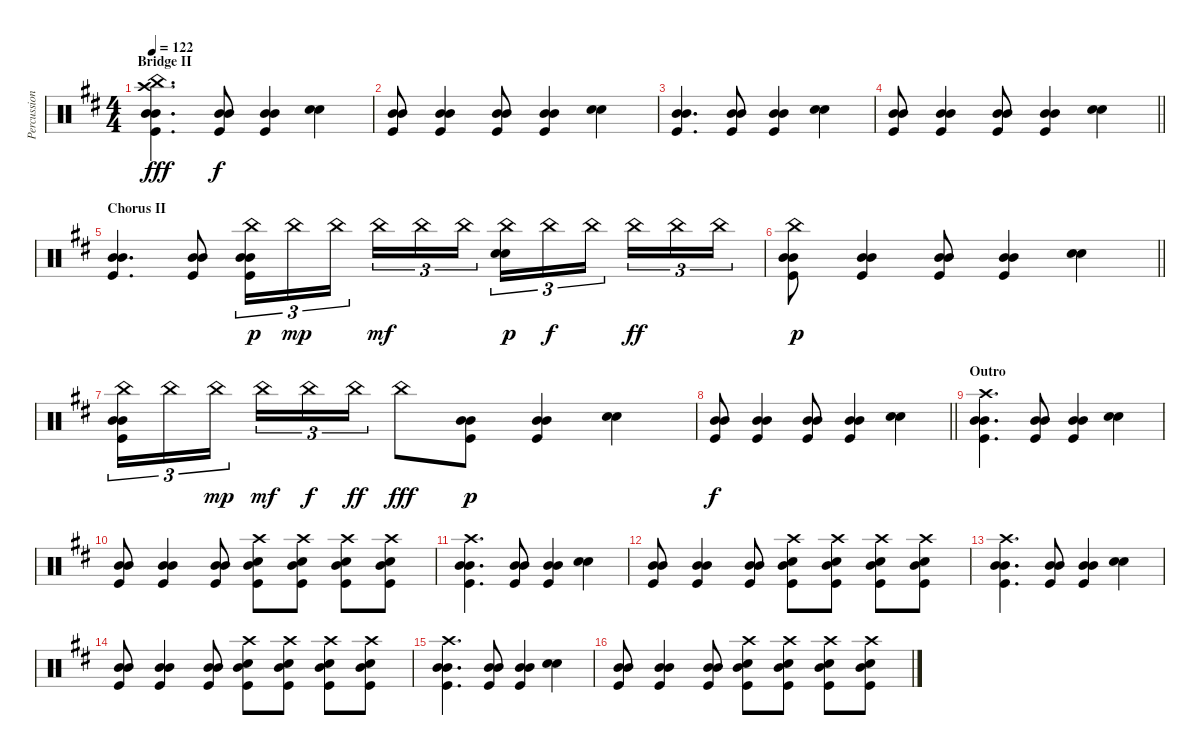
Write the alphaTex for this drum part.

\track ("Percussion" "Percussion") {instrument percussion}
\staff {score}
\articulation defaults
\ts (4 4)
\section ("" "Bridge II")
\tempo 122
\clef neutral
\ks bminor
("Crash high (hit)" "China (hit)" "Mid Tom (hit)" "Mid Tom (hit)" "Kick (hit)").4{d dy fff volume 8} ("Mid Tom (hit)" "Mid Tom (hit)" "Kick (hit)").8{dy f} ("Mid Tom (hit)" "Mid Tom (hit)" "Kick (hit)").4 ("Snare (hit) 2" "Snare (hit) 2").4 |
("Mid Tom (hit)" "Mid Tom (hit)" "Kick (hit)").8 ("Mid Tom (hit)" "Mid Tom (hit)" "Kick (hit)").4 ("Mid Tom (hit)" "Mid Tom (hit)" "Kick (hit)").8 ("Mid Tom (hit)" "Mid Tom (hit)" "Kick (hit)").4 ("Snare (hit) 2" "Snare (hit) 2").4 |
("Mid Tom (hit)" "Mid Tom (hit)" "Kick (hit)").4{d} ("Mid Tom (hit)" "Mid Tom (hit)" "Kick (hit)").8 ("Mid Tom (hit)" "Mid Tom (hit)" "Kick (hit)").4 ("Snare (hit) 2" "Snare (hit) 2").4 |
\barLineRight lightlight
("Mid Tom (hit)" "Mid Tom (hit)" "Kick (hit)").8 ("Mid Tom (hit)" "Mid Tom (hit)" "Kick (hit)").4 ("Mid Tom (hit)" "Mid Tom (hit)" "Kick (hit)").8 ("Mid Tom (hit)" "Mid Tom (hit)" "Kick (hit)").4 ("Snare (hit) 2" "Snare (hit) 2").4 |
\section ("" "Chorus II")
("Mid Tom (hit)" "Mid Tom (hit)" "Kick (hit)").4{d} ("Mid Tom (hit)" "Mid Tom (hit)" "Kick (hit)").8 ("China (hit)" "Mid Tom (hit)" "Mid Tom (hit)" "Kick (hit)").16{tu (3 2) dy p volume 15} "China (hit)".16{tu (3 2) dy mp} "China (hit)".16{tu (3 2) beam splitsecondary} "China (hit)".16{tu (3 2) dy mf} "China (hit)".16{tu (3 2)} "China (hit)".16{tu (3 2)} ("China (hit)" "Snare (hit) 2" "Snare (hit) 2").16{tu (3 2) dy p} "China (hit)".16{tu (3 2) dy f} "China (hit)".16{tu (3 2) beam splitsecondary} "China (hit)".16{tu (3 2) dy ff} "China (hit)".16{tu (3 2)} "China (hit)".16{tu (3 2)} |
\barLineRight lightlight
("China (hit)" "Mid Tom (hit)" "Mid Tom (hit)" "Kick (hit)").8{dy p} ("Mid Tom (hit)" "Mid Tom (hit)" "Kick (hit)").4 ("Mid Tom (hit)" "Mid Tom (hit)" "Kick (hit)").8 ("Mid Tom (hit)" "Mid Tom (hit)" "Kick (hit)").4 ("Snare (hit) 2" "Snare (hit) 2").4 |
("China (hit)" "Mid Tom (hit)" "Mid Tom (hit)" "Kick (hit)").16{tu (3 2) volume 16} "China (hit)".16{tu (3 2)} "China (hit)".16{tu (3 2) dy mp beam splitsecondary} "China (hit)".16{tu (3 2) dy mf} "China (hit)".16{tu (3 2) dy f} "China (hit)".16{tu (3 2) dy ff} "China (hit)".8{dy fff} ("Mid Tom (hit)" "Mid Tom (hit)" "Kick (hit)").8{dy p} ("Mid Tom (hit)" "Mid Tom (hit)" "Kick (hit)").4 ("Snare (hit) 2" "Snare (hit) 2").4 |
\barLineRight lightlight
("Mid Tom (hit)" "Mid Tom (hit)" "Kick (hit)").8{dy f volume 8} ("Mid Tom (hit)" "Mid Tom (hit)" "Kick (hit)").4 ("Mid Tom (hit)" "Mid Tom (hit)" "Kick (hit)").8 ("Mid Tom (hit)" "Mid Tom (hit)" "Kick (hit)").4 ("Snare (hit) 2" "Snare (hit) 2").4 |
\section ("" "Outro")
("Crash high (hit)" "Mid Tom (hit)" "Mid Tom (hit)" "Kick (hit)").4{d} ("Mid Tom (hit)" "Mid Tom (hit)" "Kick (hit)").8 ("Mid Tom (hit)" "Mid Tom (hit)" "Kick (hit)").4 ("Snare (hit) 2" "Snare (hit) 2").4 |
("Mid Tom (hit)" "Mid Tom (hit)" "Kick (hit)").8 ("Mid Tom (hit)" "Mid Tom (hit)" "Kick (hit)").4 ("Mid Tom (hit)" "Mid Tom (hit)" "Kick (hit)").8 ("Crash high (hit)" "Snare (hit) 2" "Mid Tom (hit)" "Kick (hit)").8 ("Crash high (hit)" "Snare (hit) 2" "Mid Tom (hit)" "Kick (hit)").8 ("Crash high (hit)" "Snare (hit) 2" "Mid Tom (hit)" "Kick (hit)").8 ("Crash high (hit)" "Snare (hit) 2" "Mid Tom (hit)" "Kick (hit)").8 |
("Crash high (hit)" "Mid Tom (hit)" "Mid Tom (hit)" "Kick (hit)").4{d} ("Mid Tom (hit)" "Mid Tom (hit)" "Kick (hit)").8 ("Mid Tom (hit)" "Mid Tom (hit)" "Kick (hit)").4 ("Snare (hit) 2" "Snare (hit) 2").4 |
("Mid Tom (hit)" "Mid Tom (hit)" "Kick (hit)").8 ("Mid Tom (hit)" "Mid Tom (hit)" "Kick (hit)").4 ("Mid Tom (hit)" "Mid Tom (hit)" "Kick (hit)").8 ("Crash high (hit)" "Snare (hit) 2" "Mid Tom (hit)" "Kick (hit)").8 ("Crash high (hit)" "Snare (hit) 2" "Mid Tom (hit)" "Kick (hit)").8 ("Crash high (hit)" "Snare (hit) 2" "Mid Tom (hit)" "Kick (hit)").8 ("Crash high (hit)" "Snare (hit) 2" "Mid Tom (hit)" "Kick (hit)").8 |
("Crash high (hit)" "Mid Tom (hit)" "Mid Tom (hit)" "Kick (hit)").4{d} ("Mid Tom (hit)" "Mid Tom (hit)" "Kick (hit)").8 ("Mid Tom (hit)" "Mid Tom (hit)" "Kick (hit)").4 ("Snare (hit) 2" "Snare (hit) 2").4 |
("Mid Tom (hit)" "Mid Tom (hit)" "Kick (hit)").8 ("Mid Tom (hit)" "Mid Tom (hit)" "Kick (hit)").4 ("Mid Tom (hit)" "Mid Tom (hit)" "Kick (hit)").8 ("Crash high (hit)" "Snare (hit) 2" "Mid Tom (hit)" "Kick (hit)").8 ("Crash high (hit)" "Snare (hit) 2" "Mid Tom (hit)" "Kick (hit)").8 ("Crash high (hit)" "Snare (hit) 2" "Mid Tom (hit)" "Kick (hit)").8 ("Crash high (hit)" "Snare (hit) 2" "Mid Tom (hit)" "Kick (hit)").8 |
("Crash high (hit)" "Mid Tom (hit)" "Mid Tom (hit)" "Kick (hit)").4{d} ("Mid Tom (hit)" "Mid Tom (hit)" "Kick (hit)").8 ("Mid Tom (hit)" "Mid Tom (hit)" "Kick (hit)").4 ("Snare (hit) 2" "Snare (hit) 2").4 |
("Mid Tom (hit)" "Mid Tom (hit)" "Kick (hit)").8 ("Mid Tom (hit)" "Mid Tom (hit)" "Kick (hit)").4 ("Mid Tom (hit)" "Mid Tom (hit)" "Kick (hit)").8 ("Crash high (hit)" "Snare (hit) 2" "Mid Tom (hit)" "Kick (hit)").8 ("Crash high (hit)" "Snare (hit) 2" "Mid Tom (hit)" "Kick (hit)").8 ("Crash high (hit)" "Snare (hit) 2" "Mid Tom (hit)" "Kick (hit)").8 ("Crash high (hit)" "Snare (hit) 2" "Mid Tom (hit)" "Kick (hit)").8
